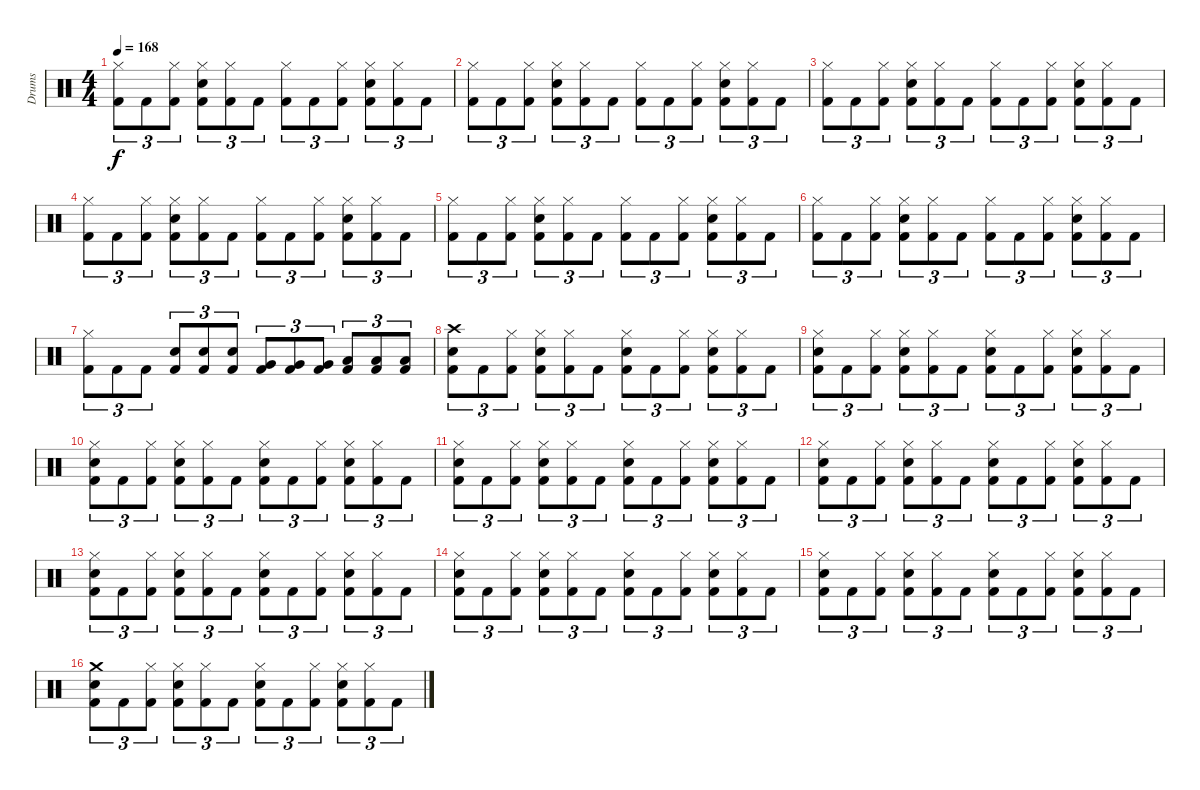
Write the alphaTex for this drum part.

\track ("Drums" "Drums") {instrument percussion}
\staff {score}
\articulation defaults
\ts (4 4)
\tempo 168
\clef neutral
\ks c
("Hi-Hat (closed)" "Kick (hit) 2").8{tu (3 2) dy f} "Kick (hit) 2".8{tu (3 2)} ("Hi-Hat (closed)" "Kick (hit) 2").8{tu (3 2)} ("Hi-Hat (closed)" "Electric Snare (hit)" "Kick (hit) 2").8{tu (3 2)} ("Hi-Hat (closed)" "Kick (hit) 2").8{tu (3 2)} "Kick (hit) 2".8{tu (3 2)} ("Hi-Hat (closed)" "Kick (hit) 2").8{tu (3 2)} "Kick (hit) 2".8{tu (3 2)} ("Hi-Hat (closed)" "Kick (hit) 2").8{tu (3 2)} ("Hi-Hat (closed)" "Electric Snare (hit)" "Kick (hit) 2").8{tu (3 2)} ("Hi-Hat (closed)" "Kick (hit) 2").8{tu (3 2)} "Kick (hit) 2".8{tu (3 2)} |
("Hi-Hat (closed)" "Kick (hit) 2").8{tu (3 2)} "Kick (hit) 2".8{tu (3 2)} ("Hi-Hat (closed)" "Kick (hit) 2").8{tu (3 2)} ("Hi-Hat (closed)" "Electric Snare (hit)" "Kick (hit) 2").8{tu (3 2)} ("Hi-Hat (closed)" "Kick (hit) 2").8{tu (3 2)} "Kick (hit) 2".8{tu (3 2)} ("Hi-Hat (closed)" "Kick (hit) 2").8{tu (3 2)} "Kick (hit) 2".8{tu (3 2)} ("Hi-Hat (closed)" "Kick (hit) 2").8{tu (3 2)} ("Hi-Hat (closed)" "Electric Snare (hit)" "Kick (hit) 2").8{tu (3 2)} ("Hi-Hat (closed)" "Kick (hit) 2").8{tu (3 2)} "Kick (hit) 2".8{tu (3 2)} |
("Hi-Hat (closed)" "Kick (hit) 2").8{tu (3 2)} "Kick (hit) 2".8{tu (3 2)} ("Hi-Hat (closed)" "Kick (hit) 2").8{tu (3 2)} ("Hi-Hat (closed)" "Electric Snare (hit)" "Kick (hit) 2").8{tu (3 2)} ("Hi-Hat (closed)" "Kick (hit) 2").8{tu (3 2)} "Kick (hit) 2".8{tu (3 2)} ("Hi-Hat (closed)" "Kick (hit) 2").8{tu (3 2)} "Kick (hit) 2".8{tu (3 2)} ("Hi-Hat (closed)" "Kick (hit) 2").8{tu (3 2)} ("Hi-Hat (closed)" "Electric Snare (hit)" "Kick (hit) 2").8{tu (3 2)} ("Hi-Hat (closed)" "Kick (hit) 2").8{tu (3 2)} "Kick (hit) 2".8{tu (3 2)} |
("Hi-Hat (closed)" "Kick (hit) 2").8{tu (3 2)} "Kick (hit) 2".8{tu (3 2)} ("Hi-Hat (closed)" "Kick (hit) 2").8{tu (3 2)} ("Hi-Hat (closed)" "Electric Snare (hit)" "Kick (hit) 2").8{tu (3 2)} ("Hi-Hat (closed)" "Kick (hit) 2").8{tu (3 2)} "Kick (hit) 2".8{tu (3 2)} ("Hi-Hat (closed)" "Kick (hit) 2").8{tu (3 2)} "Kick (hit) 2".8{tu (3 2)} ("Hi-Hat (closed)" "Kick (hit) 2").8{tu (3 2)} ("Hi-Hat (closed)" "Electric Snare (hit)" "Kick (hit) 2").8{tu (3 2)} ("Hi-Hat (closed)" "Kick (hit) 2").8{tu (3 2)} "Kick (hit) 2".8{tu (3 2)} |
("Hi-Hat (closed)" "Kick (hit) 2").8{tu (3 2)} "Kick (hit) 2".8{tu (3 2)} ("Hi-Hat (closed)" "Kick (hit) 2").8{tu (3 2)} ("Hi-Hat (closed)" "Electric Snare (hit)" "Kick (hit) 2").8{tu (3 2)} ("Hi-Hat (closed)" "Kick (hit) 2").8{tu (3 2)} "Kick (hit) 2".8{tu (3 2)} ("Hi-Hat (closed)" "Kick (hit) 2").8{tu (3 2)} "Kick (hit) 2".8{tu (3 2)} ("Hi-Hat (closed)" "Kick (hit) 2").8{tu (3 2)} ("Hi-Hat (closed)" "Electric Snare (hit)" "Kick (hit) 2").8{tu (3 2)} ("Hi-Hat (closed)" "Kick (hit) 2").8{tu (3 2)} "Kick (hit) 2".8{tu (3 2)} |
("Hi-Hat (closed)" "Kick (hit) 2").8{tu (3 2)} "Kick (hit) 2".8{tu (3 2)} ("Hi-Hat (closed)" "Kick (hit) 2").8{tu (3 2)} ("Hi-Hat (closed)" "Electric Snare (hit)" "Kick (hit) 2").8{tu (3 2)} ("Hi-Hat (closed)" "Kick (hit) 2").8{tu (3 2)} "Kick (hit) 2".8{tu (3 2)} ("Hi-Hat (closed)" "Kick (hit) 2").8{tu (3 2)} "Kick (hit) 2".8{tu (3 2)} ("Hi-Hat (closed)" "Kick (hit) 2").8{tu (3 2)} ("Hi-Hat (closed)" "Electric Snare (hit)" "Kick (hit) 2").8{tu (3 2)} ("Hi-Hat (closed)" "Kick (hit) 2").8{tu (3 2)} "Kick (hit) 2".8{tu (3 2)} |
("Hi-Hat (closed)" "Kick (hit) 2").8{tu (3 2)} "Kick (hit) 2".8{tu (3 2)} "Kick (hit) 2".8{tu (3 2)} ("Electric Snare (hit)" "Kick (hit) 2").8{tu (3 2)} ("Electric Snare (hit)" "Kick (hit) 2").8{tu (3 2)} ("Electric Snare (hit)" "Kick (hit) 2").8{tu (3 2)} ("Very Low Tom (hit)" "Kick (hit) 2").8{tu (3 2)} ("Very Low Tom (hit)" "Kick (hit) 2").8{tu (3 2)} ("Very Low Tom (hit)" "Kick (hit) 2").8{tu (3 2)} ("Low Floor Tom (hit)" "Kick (hit) 2").8{tu (3 2)} ("Low Floor Tom (hit)" "Kick (hit) 2").8{tu (3 2)} ("Low Floor Tom (hit)" "Kick (hit) 2").8{tu (3 2)} |
("Crash high (hit)" "Electric Snare (hit)" "Kick (hit) 2").8{tu (3 2)} "Kick (hit) 2".8{tu (3 2)} ("Hi-Hat (closed)" "Kick (hit) 2").8{tu (3 2)} ("Hi-Hat (closed)" "Electric Snare (hit)" "Kick (hit) 2").8{tu (3 2)} ("Hi-Hat (closed)" "Kick (hit) 2").8{tu (3 2)} "Kick (hit) 2".8{tu (3 2)} ("Hi-Hat (closed)" "Electric Snare (hit)" "Kick (hit) 2").8{tu (3 2)} "Kick (hit) 2".8{tu (3 2)} ("Hi-Hat (closed)" "Kick (hit) 2").8{tu (3 2)} ("Hi-Hat (closed)" "Electric Snare (hit)" "Kick (hit) 2").8{tu (3 2)} ("Hi-Hat (closed)" "Kick (hit) 2").8{tu (3 2)} "Kick (hit) 2".8{tu (3 2)} |
("Hi-Hat (closed)" "Electric Snare (hit)" "Kick (hit) 2").8{tu (3 2)} "Kick (hit) 2".8{tu (3 2)} ("Hi-Hat (closed)" "Kick (hit) 2").8{tu (3 2)} ("Hi-Hat (closed)" "Electric Snare (hit)" "Kick (hit) 2").8{tu (3 2)} ("Hi-Hat (closed)" "Kick (hit) 2").8{tu (3 2)} "Kick (hit) 2".8{tu (3 2)} ("Hi-Hat (closed)" "Electric Snare (hit)" "Kick (hit) 2").8{tu (3 2)} "Kick (hit) 2".8{tu (3 2)} ("Hi-Hat (closed)" "Kick (hit) 2").8{tu (3 2)} ("Hi-Hat (closed)" "Electric Snare (hit)" "Kick (hit) 2").8{tu (3 2)} ("Hi-Hat (closed)" "Kick (hit) 2").8{tu (3 2)} "Kick (hit) 2".8{tu (3 2)} |
("Hi-Hat (closed)" "Electric Snare (hit)" "Kick (hit) 2").8{tu (3 2)} "Kick (hit) 2".8{tu (3 2)} ("Hi-Hat (closed)" "Kick (hit) 2").8{tu (3 2)} ("Hi-Hat (closed)" "Electric Snare (hit)" "Kick (hit) 2").8{tu (3 2)} ("Hi-Hat (closed)" "Kick (hit) 2").8{tu (3 2)} "Kick (hit) 2".8{tu (3 2)} ("Hi-Hat (closed)" "Electric Snare (hit)" "Kick (hit) 2").8{tu (3 2)} "Kick (hit) 2".8{tu (3 2)} ("Hi-Hat (closed)" "Kick (hit) 2").8{tu (3 2)} ("Hi-Hat (closed)" "Electric Snare (hit)" "Kick (hit) 2").8{tu (3 2)} ("Hi-Hat (closed)" "Kick (hit) 2").8{tu (3 2)} "Kick (hit) 2".8{tu (3 2)} |
("Hi-Hat (closed)" "Electric Snare (hit)" "Kick (hit) 2").8{tu (3 2)} "Kick (hit) 2".8{tu (3 2)} ("Hi-Hat (closed)" "Kick (hit) 2").8{tu (3 2)} ("Hi-Hat (closed)" "Electric Snare (hit)" "Kick (hit) 2").8{tu (3 2)} ("Hi-Hat (closed)" "Kick (hit) 2").8{tu (3 2)} "Kick (hit) 2".8{tu (3 2)} ("Hi-Hat (closed)" "Electric Snare (hit)" "Kick (hit) 2").8{tu (3 2)} "Kick (hit) 2".8{tu (3 2)} ("Hi-Hat (closed)" "Kick (hit) 2").8{tu (3 2)} ("Hi-Hat (closed)" "Electric Snare (hit)" "Kick (hit) 2").8{tu (3 2)} ("Hi-Hat (closed)" "Kick (hit) 2").8{tu (3 2)} "Kick (hit) 2".8{tu (3 2)} |
("Hi-Hat (closed)" "Electric Snare (hit)" "Kick (hit) 2").8{tu (3 2)} "Kick (hit) 2".8{tu (3 2)} ("Hi-Hat (closed)" "Kick (hit) 2").8{tu (3 2)} ("Hi-Hat (closed)" "Electric Snare (hit)" "Kick (hit) 2").8{tu (3 2)} ("Hi-Hat (closed)" "Kick (hit) 2").8{tu (3 2)} "Kick (hit) 2".8{tu (3 2)} ("Hi-Hat (closed)" "Electric Snare (hit)" "Kick (hit) 2").8{tu (3 2)} "Kick (hit) 2".8{tu (3 2)} ("Hi-Hat (closed)" "Kick (hit) 2").8{tu (3 2)} ("Hi-Hat (closed)" "Electric Snare (hit)" "Kick (hit) 2").8{tu (3 2)} ("Hi-Hat (closed)" "Kick (hit) 2").8{tu (3 2)} "Kick (hit) 2".8{tu (3 2)} |
("Hi-Hat (closed)" "Electric Snare (hit)" "Kick (hit) 2").8{tu (3 2)} "Kick (hit) 2".8{tu (3 2)} ("Hi-Hat (closed)" "Kick (hit) 2").8{tu (3 2)} ("Hi-Hat (closed)" "Electric Snare (hit)" "Kick (hit) 2").8{tu (3 2)} ("Hi-Hat (closed)" "Kick (hit) 2").8{tu (3 2)} "Kick (hit) 2".8{tu (3 2)} ("Hi-Hat (closed)" "Electric Snare (hit)" "Kick (hit) 2").8{tu (3 2)} "Kick (hit) 2".8{tu (3 2)} ("Hi-Hat (closed)" "Kick (hit) 2").8{tu (3 2)} ("Hi-Hat (closed)" "Electric Snare (hit)" "Kick (hit) 2").8{tu (3 2)} ("Hi-Hat (closed)" "Kick (hit) 2").8{tu (3 2)} "Kick (hit) 2".8{tu (3 2)} |
("Hi-Hat (closed)" "Electric Snare (hit)" "Kick (hit) 2").8{tu (3 2)} "Kick (hit) 2".8{tu (3 2)} ("Hi-Hat (closed)" "Kick (hit) 2").8{tu (3 2)} ("Hi-Hat (closed)" "Electric Snare (hit)" "Kick (hit) 2").8{tu (3 2)} ("Hi-Hat (closed)" "Kick (hit) 2").8{tu (3 2)} "Kick (hit) 2".8{tu (3 2)} ("Hi-Hat (closed)" "Electric Snare (hit)" "Kick (hit) 2").8{tu (3 2)} "Kick (hit) 2".8{tu (3 2)} ("Hi-Hat (closed)" "Kick (hit) 2").8{tu (3 2)} ("Hi-Hat (closed)" "Electric Snare (hit)" "Kick (hit) 2").8{tu (3 2)} ("Hi-Hat (closed)" "Kick (hit) 2").8{tu (3 2)} "Kick (hit) 2".8{tu (3 2)} |
("Hi-Hat (closed)" "Electric Snare (hit)" "Kick (hit) 2").8{tu (3 2)} "Kick (hit) 2".8{tu (3 2)} ("Hi-Hat (closed)" "Kick (hit) 2").8{tu (3 2)} ("Hi-Hat (closed)" "Electric Snare (hit)" "Kick (hit) 2").8{tu (3 2)} ("Hi-Hat (closed)" "Kick (hit) 2").8{tu (3 2)} "Kick (hit) 2".8{tu (3 2)} ("Hi-Hat (closed)" "Electric Snare (hit)" "Kick (hit) 2").8{tu (3 2)} "Kick (hit) 2".8{tu (3 2)} ("Hi-Hat (closed)" "Kick (hit) 2").8{tu (3 2)} ("Hi-Hat (closed)" "Electric Snare (hit)" "Kick (hit) 2").8{tu (3 2)} ("Hi-Hat (closed)" "Kick (hit) 2").8{tu (3 2)} "Kick (hit) 2".8{tu (3 2)} |
("Crash medium (hit)" "Electric Snare (hit)" "Kick (hit) 2").8{tu (3 2)} "Kick (hit) 2".8{tu (3 2)} ("Hi-Hat (closed)" "Kick (hit) 2").8{tu (3 2)} ("Hi-Hat (closed)" "Electric Snare (hit)" "Kick (hit) 2").8{tu (3 2)} ("Hi-Hat (closed)" "Kick (hit) 2").8{tu (3 2)} "Kick (hit) 2".8{tu (3 2)} ("Hi-Hat (closed)" "Electric Snare (hit)" "Kick (hit) 2").8{tu (3 2)} "Kick (hit) 2".8{tu (3 2)} ("Hi-Hat (closed)" "Kick (hit) 2").8{tu (3 2)} ("Hi-Hat (closed)" "Electric Snare (hit)" "Kick (hit) 2").8{tu (3 2)} ("Hi-Hat (closed)" "Kick (hit) 2").8{tu (3 2)} "Kick (hit) 2".8{tu (3 2)}
